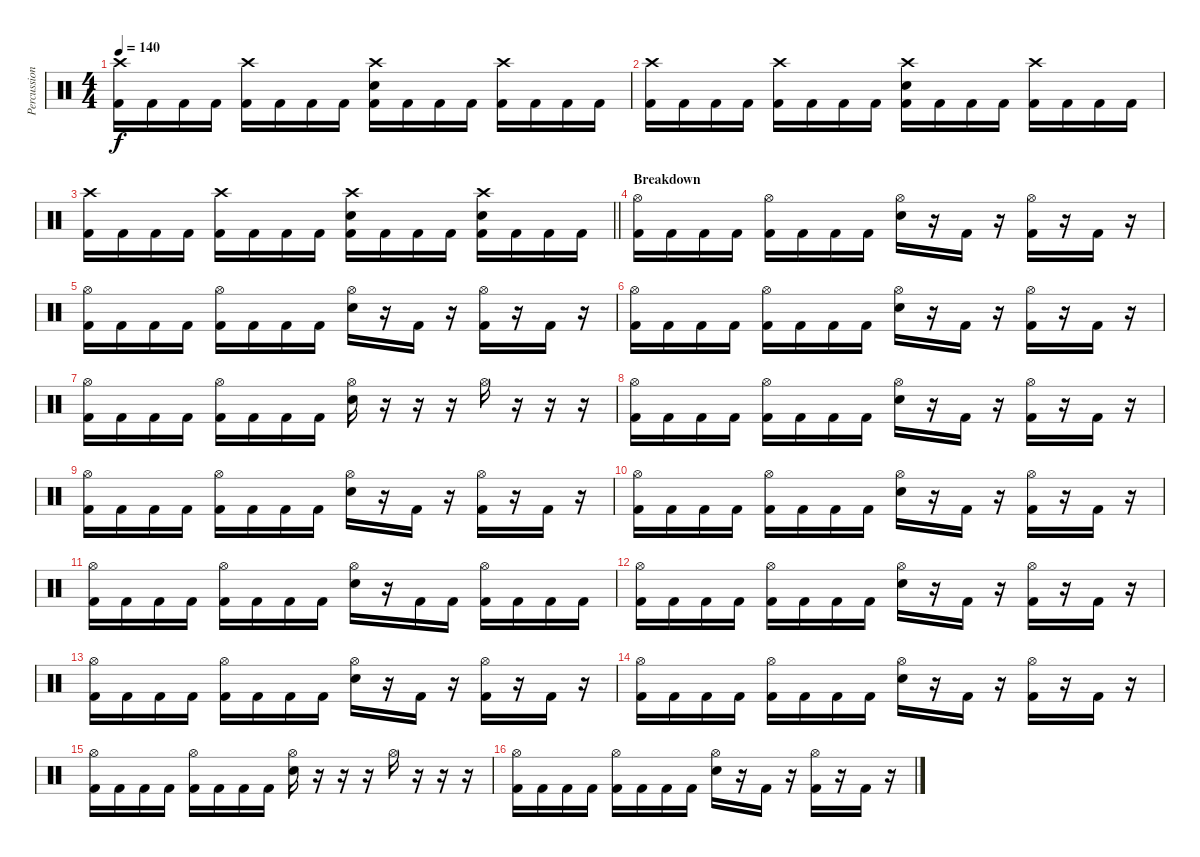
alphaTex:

\track ("Percussion" "Percussion") {instrument percussion}
\staff {score}
\articulation defaults
\ts (4 4)
\tempo 140
\clef neutral
\ks c
("Crash high (hit)" "Kick (hit) 2").16{dy f} "Kick (hit) 2".16 "Kick (hit) 2".16 "Kick (hit) 2".16 ("Crash high (hit)" "Kick (hit) 2").16 "Kick (hit) 2".16 "Kick (hit) 2".16 "Kick (hit) 2".16 ("Crash high (hit)" "Electric Snare (hit)" "Kick (hit) 2").16 "Kick (hit) 2".16 "Kick (hit) 2".16 "Kick (hit) 2".16 ("Crash high (hit)" "Kick (hit) 2").16 "Kick (hit) 2".16 "Kick (hit) 2".16 "Kick (hit) 2".16 |
("Crash high (hit)" "Kick (hit) 2").16 "Kick (hit) 2".16 "Kick (hit) 2".16 "Kick (hit) 2".16 ("Crash high (hit)" "Kick (hit) 2").16 "Kick (hit) 2".16 "Kick (hit) 2".16 "Kick (hit) 2".16 ("Crash high (hit)" "Electric Snare (hit)" "Kick (hit) 2").16 "Kick (hit) 2".16 "Kick (hit) 2".16 "Kick (hit) 2".16 ("Crash high (hit)" "Kick (hit) 2").16 "Kick (hit) 2".16 "Kick (hit) 2".16 "Kick (hit) 2".16 |
\barLineRight lightlight
("Crash high (hit)" "Kick (hit) 2").16 "Kick (hit) 2".16 "Kick (hit) 2".16 "Kick (hit) 2".16 ("Crash high (hit)" "Kick (hit) 2").16 "Kick (hit) 2".16 "Kick (hit) 2".16 "Kick (hit) 2".16 ("Crash high (hit)" "Electric Snare (hit)" "Kick (hit) 2").16 "Kick (hit) 2".16 "Kick (hit) 2".16 "Kick (hit) 2".16 ("Crash high (hit)" "Electric Snare (hit)" "Kick (hit) 2").16 "Kick (hit) 2".16 "Kick (hit) 2".16 "Kick (hit) 2".16 |
\section ("" "Breakdown")
("Hi-Hat (open)" "Kick (hit) 2").16 "Kick (hit) 2".16 "Kick (hit) 2".16 "Kick (hit) 2".16 ("Hi-Hat (open)" "Kick (hit) 2").16 "Kick (hit) 2".16 "Kick (hit) 2".16 "Kick (hit) 2".16 ("Hi-Hat (open)" "Electric Snare (hit)").16 r.16 "Kick (hit) 2".16 r.16 ("Hi-Hat (open)" "Kick (hit) 2").16 r.16 "Kick (hit) 2".16 r.16 |
("Hi-Hat (open)" "Kick (hit) 2").16 "Kick (hit) 2".16 "Kick (hit) 2".16 "Kick (hit) 2".16 ("Hi-Hat (open)" "Kick (hit) 2").16 "Kick (hit) 2".16 "Kick (hit) 2".16 "Kick (hit) 2".16 ("Hi-Hat (open)" "Electric Snare (hit)").16 r.16 "Kick (hit) 2".16 r.16 ("Hi-Hat (open)" "Kick (hit) 2").16 r.16 "Kick (hit) 2".16 r.16 |
("Hi-Hat (open)" "Kick (hit) 2").16 "Kick (hit) 2".16 "Kick (hit) 2".16 "Kick (hit) 2".16 ("Hi-Hat (open)" "Kick (hit) 2").16 "Kick (hit) 2".16 "Kick (hit) 2".16 "Kick (hit) 2".16 ("Hi-Hat (open)" "Electric Snare (hit)").16 r.16 "Kick (hit) 2".16 r.16 ("Hi-Hat (open)" "Kick (hit) 2").16 r.16 "Kick (hit) 2".16 r.16 |
("Hi-Hat (open)" "Kick (hit) 2").16 "Kick (hit) 2".16 "Kick (hit) 2".16 "Kick (hit) 2".16 ("Hi-Hat (open)" "Kick (hit) 2").16 "Kick (hit) 2".16 "Kick (hit) 2".16 "Kick (hit) 2".16 ("Hi-Hat (open)" "Electric Snare (hit)").16 r.16 r.16 r.16 "Hi-Hat (open)".16 r.16 r.16 r.16 |
("Hi-Hat (open)" "Kick (hit) 2").16 "Kick (hit) 2".16 "Kick (hit) 2".16 "Kick (hit) 2".16 ("Hi-Hat (open)" "Kick (hit) 2").16 "Kick (hit) 2".16 "Kick (hit) 2".16 "Kick (hit) 2".16 ("Hi-Hat (open)" "Electric Snare (hit)").16 r.16 "Kick (hit) 2".16 r.16 ("Hi-Hat (open)" "Kick (hit) 2").16 r.16 "Kick (hit) 2".16 r.16 |
("Hi-Hat (open)" "Kick (hit) 2").16 "Kick (hit) 2".16 "Kick (hit) 2".16 "Kick (hit) 2".16 ("Hi-Hat (open)" "Kick (hit) 2").16 "Kick (hit) 2".16 "Kick (hit) 2".16 "Kick (hit) 2".16 ("Hi-Hat (open)" "Electric Snare (hit)").16 r.16 "Kick (hit) 2".16 r.16 ("Hi-Hat (open)" "Kick (hit) 2").16 r.16 "Kick (hit) 2".16 r.16 |
("Hi-Hat (open)" "Kick (hit) 2").16 "Kick (hit) 2".16 "Kick (hit) 2".16 "Kick (hit) 2".16 ("Hi-Hat (open)" "Kick (hit) 2").16 "Kick (hit) 2".16 "Kick (hit) 2".16 "Kick (hit) 2".16 ("Hi-Hat (open)" "Electric Snare (hit)").16 r.16 "Kick (hit) 2".16 r.16 ("Hi-Hat (open)" "Kick (hit) 2").16 r.16 "Kick (hit) 2".16 r.16 |
("Hi-Hat (open)" "Kick (hit) 2").16 "Kick (hit) 2".16 "Kick (hit) 2".16 "Kick (hit) 2".16 ("Hi-Hat (open)" "Kick (hit) 2").16 "Kick (hit) 2".16 "Kick (hit) 2".16 "Kick (hit) 2".16 ("Hi-Hat (open)" "Electric Snare (hit)").16 r.16 "Kick (hit) 2".16 "Kick (hit) 2".16 ("Hi-Hat (open)" "Kick (hit) 2").16 "Kick (hit) 2".16 "Kick (hit) 2".16 "Kick (hit) 2".16 |
("Hi-Hat (open)" "Kick (hit) 2").16 "Kick (hit) 2".16 "Kick (hit) 2".16 "Kick (hit) 2".16 ("Hi-Hat (open)" "Kick (hit) 2").16 "Kick (hit) 2".16 "Kick (hit) 2".16 "Kick (hit) 2".16 ("Hi-Hat (open)" "Electric Snare (hit)").16 r.16 "Kick (hit) 2".16 r.16 ("Hi-Hat (open)" "Kick (hit) 2").16 r.16 "Kick (hit) 2".16 r.16 |
("Hi-Hat (open)" "Kick (hit) 2").16 "Kick (hit) 2".16 "Kick (hit) 2".16 "Kick (hit) 2".16 ("Hi-Hat (open)" "Kick (hit) 2").16 "Kick (hit) 2".16 "Kick (hit) 2".16 "Kick (hit) 2".16 ("Hi-Hat (open)" "Electric Snare (hit)").16 r.16 "Kick (hit) 2".16 r.16 ("Hi-Hat (open)" "Kick (hit) 2").16 r.16 "Kick (hit) 2".16 r.16 |
("Hi-Hat (open)" "Kick (hit) 2").16 "Kick (hit) 2".16 "Kick (hit) 2".16 "Kick (hit) 2".16 ("Hi-Hat (open)" "Kick (hit) 2").16 "Kick (hit) 2".16 "Kick (hit) 2".16 "Kick (hit) 2".16 ("Hi-Hat (open)" "Electric Snare (hit)").16 r.16 "Kick (hit) 2".16 r.16 ("Hi-Hat (open)" "Kick (hit) 2").16 r.16 "Kick (hit) 2".16 r.16 |
("Hi-Hat (open)" "Kick (hit) 2").16 "Kick (hit) 2".16 "Kick (hit) 2".16 "Kick (hit) 2".16 ("Hi-Hat (open)" "Kick (hit) 2").16 "Kick (hit) 2".16 "Kick (hit) 2".16 "Kick (hit) 2".16 ("Hi-Hat (open)" "Electric Snare (hit)").16 r.16 r.16 r.16 "Hi-Hat (open)".16 r.16 r.16 r.16 |
("Hi-Hat (open)" "Kick (hit) 2").16 "Kick (hit) 2".16 "Kick (hit) 2".16 "Kick (hit) 2".16 ("Hi-Hat (open)" "Kick (hit) 2").16 "Kick (hit) 2".16 "Kick (hit) 2".16 "Kick (hit) 2".16 ("Hi-Hat (open)" "Electric Snare (hit)").16 r.16 "Kick (hit) 2".16 r.16 ("Hi-Hat (open)" "Kick (hit) 2").16 r.16 "Kick (hit) 2".16 r.16
